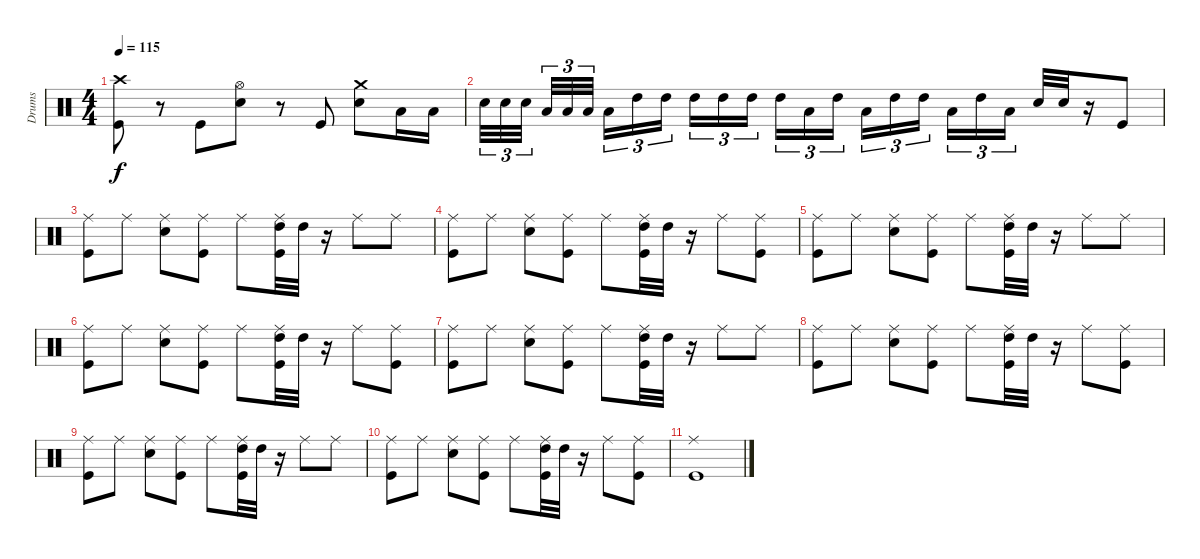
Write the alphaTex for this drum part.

\track ("Drums" "Drums") {instrument percussion}
\staff {score}
\articulation defaults
\ts (4 4)
\tempo 115
\clef neutral
\ks c
("Kick (hit)" "Crash high (hit)").8{dy f} r.8 "Kick (hit)".8 ("Snare (hit) 2" "Hi-Hat (open)").8 r.8 "Kick (hit)".8 ("Snare (hit) 2" "Crash medium (hit)").8 "Low Tom (hit)".16 "Low Tom (hit)".16 |
"Snare (hit) 2".32{tu (3 2)} "Snare (hit) 2".32{tu (3 2)} "Snare (hit) 2".32{tu (3 2)} "Low Tom (hit)".32{tu (3 2)} "Low Tom (hit)".32{tu (3 2)} "Low Tom (hit)".32{tu (3 2)} "Low Tom (hit)".16{tu (3 2)} "High Tom (hit)".16{tu (3 2)} "High Tom (hit)".16{tu (3 2)} "High Tom (hit)".16{tu (3 2)} "High Tom (hit)".16{tu (3 2)} "High Tom (hit)".16{tu (3 2)} "High Tom (hit)".16{tu (3 2)} "Low Tom (hit)".16{tu (3 2)} "High Tom (hit)".16{tu (3 2)} "Low Tom (hit)".16{tu (3 2)} "High Tom (hit)".16{tu (3 2)} "High Tom (hit)".16{tu (3 2)} "Low Tom (hit)".16{tu (3 2)} "High Tom (hit)".16{tu (3 2)} "Low Tom (hit)".16{tu (3 2)} "Snare (hit) 2".32 "Snare (hit) 2".32 r.16 "Kick (hit)".8 |
("Kick (hit)" "Ride (middle)").8 "Ride (middle)".8 ("Snare (hit) 2" "Ride (middle)").8 ("Kick (hit)" "Ride (middle)").8 "Ride (middle)".8 ("Kick (hit)" "High Tom (hit)" "Ride (middle)").32 "High Tom (hit)".32 r.16 "Ride (middle)".8 "Ride (middle)".8 |
("Kick (hit)" "Ride (middle)").8 "Ride (middle)".8 ("Snare (hit) 2" "Ride (middle)").8 ("Kick (hit)" "Ride (middle)").8 "Ride (middle)".8 ("Kick (hit)" "High Tom (hit)" "Ride (middle)").32 "High Tom (hit)".32 r.16 "Ride (middle)".8 ("Kick (hit)" "Ride (middle)").8 |
("Kick (hit)" "Ride (middle)").8 "Ride (middle)".8 ("Snare (hit) 2" "Ride (middle)").8 ("Kick (hit)" "Ride (middle)").8 "Ride (middle)".8 ("Kick (hit)" "High Tom (hit)" "Ride (middle)").32 "High Tom (hit)".32 r.16 "Ride (middle)".8 "Ride (middle)".8 |
("Kick (hit)" "Ride (middle)").8 "Ride (middle)".8 ("Snare (hit) 2" "Ride (middle)").8 ("Kick (hit)" "Ride (middle)").8 "Ride (middle)".8 ("Kick (hit)" "High Tom (hit)" "Ride (middle)").32 "High Tom (hit)".32 r.16 "Ride (middle)".8 ("Kick (hit)" "Ride (middle)").8 |
("Kick (hit)" "Ride (middle)").8 "Ride (middle)".8 ("Snare (hit) 2" "Ride (middle)").8 ("Kick (hit)" "Ride (middle)").8 "Ride (middle)".8 ("Kick (hit)" "High Tom (hit)" "Ride (middle)").32 "High Tom (hit)".32 r.16 "Ride (middle)".8 "Ride (middle)".8 |
("Kick (hit)" "Ride (middle)").8 "Ride (middle)".8 ("Snare (hit) 2" "Ride (middle)").8 ("Kick (hit)" "Ride (middle)").8 "Ride (middle)".8 ("Kick (hit)" "High Tom (hit)" "Ride (middle)").32 "High Tom (hit)".32 r.16 "Ride (middle)".8 ("Kick (hit)" "Ride (middle)").8 |
("Kick (hit)" "Ride (middle)").8 "Ride (middle)".8 ("Snare (hit) 2" "Ride (middle)").8 ("Kick (hit)" "Ride (middle)").8 "Ride (middle)".8 ("Kick (hit)" "High Tom (hit)" "Ride (middle)").32 "High Tom (hit)".32 r.16 "Ride (middle)".8 "Ride (middle)".8 |
("Kick (hit)" "Ride (middle)").8 "Ride (middle)".8 ("Snare (hit) 2" "Ride (middle)").8 ("Kick (hit)" "Ride (middle)").8 "Ride (middle)".8 ("Kick (hit)" "High Tom (hit)" "Ride (middle)").32 "High Tom (hit)".32 r.16 "Ride (middle)".8 ("Kick (hit)" "Ride (middle)").8 |
("Kick (hit)" "Ride (middle)").1
